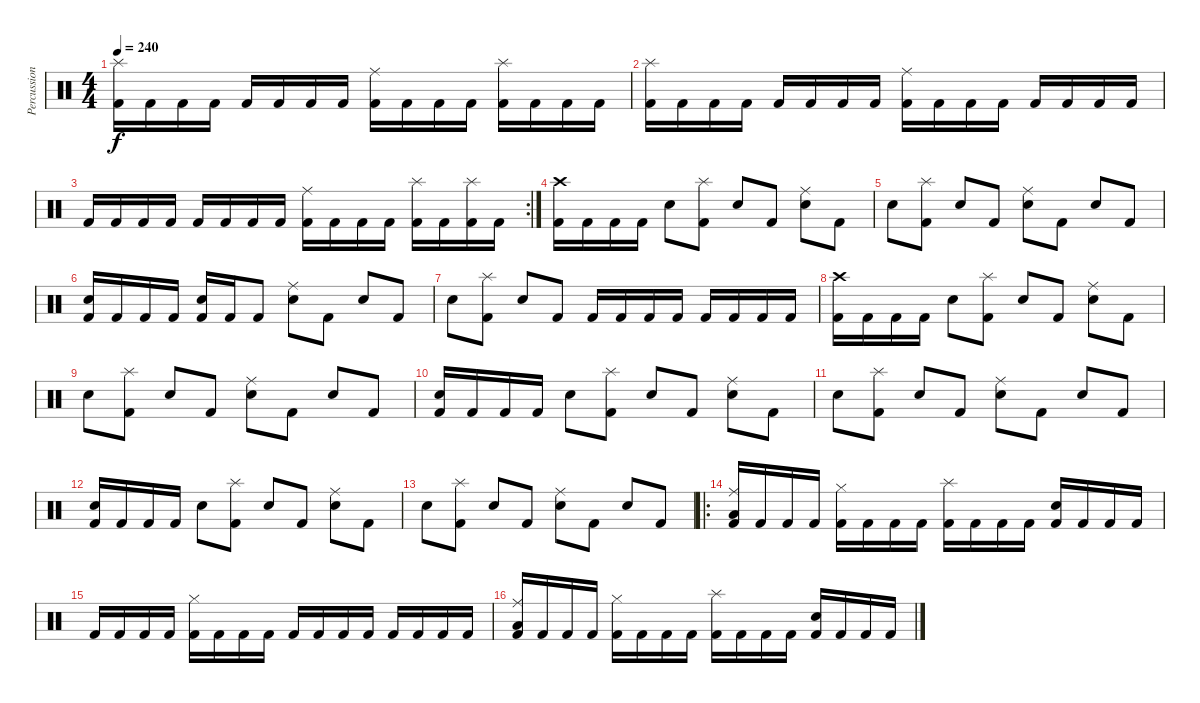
\track ("Percussion" "Percussion") {instrument percussion}
\staff {score}
\articulation defaults
\ts (4 4)
\tempo 240
\clef neutral
\ks c
("Kick (hit) 2" "Splash (hit)").16{dy f} "Kick (hit) 2".16 "Kick (hit) 2".16 "Kick (hit) 2".16 "Kick (hit) 2".16 "Kick (hit) 2".16 "Kick (hit) 2".16 "Kick (hit) 2".16 ("Kick (hit) 2" "Ride (middle)").16 "Kick (hit) 2".16 "Kick (hit) 2".16 "Kick (hit) 2".16 ("Kick (hit) 2" "Splash (hit)").16 "Kick (hit) 2".16 "Kick (hit) 2".16 "Kick (hit) 2".16 |
("Kick (hit) 2" "Splash (hit)").16 "Kick (hit) 2".16 "Kick (hit) 2".16 "Kick (hit) 2".16 "Kick (hit) 2".16 "Kick (hit) 2".16 "Kick (hit) 2".16 "Kick (hit) 2".16 ("Kick (hit) 2" "Ride (middle)").16 "Kick (hit) 2".16 "Kick (hit) 2".16 "Kick (hit) 2".16 "Kick (hit) 2".16 "Kick (hit) 2".16 "Kick (hit) 2".16 "Kick (hit) 2".16 |
\rc 2 "Kick (hit) 2".16 "Kick (hit) 2".16 "Kick (hit) 2".16 "Kick (hit) 2".16 "Kick (hit) 2".16 "Kick (hit) 2".16 "Kick (hit) 2".16 "Kick (hit) 2".16
("Kick (hit) 2" "Ride (middle)").16 "Kick (hit) 2".16 "Kick (hit) 2".16 "Kick (hit) 2".16 ("Kick (hit) 2" "Splash (hit)").16 "Kick (hit) 2".16 ("Kick (hit) 2" "Splash (hit)").16 "Kick (hit) 2".16 |
("Kick (hit) 2" "Crash high (hit)").16 "Kick (hit) 2".16 "Kick (hit) 2".16 "Kick (hit) 2".16 "Electric Snare (hit)".8 ("Kick (hit) 2" "Splash (hit)").8 "Electric Snare (hit)".8 "Kick (hit) 2".8 ("Electric Snare (hit)" "Ride (middle)").8 "Kick (hit) 2".8 |
"Electric Snare (hit)".8 ("Kick (hit) 2" "Splash (hit)").8 "Electric Snare (hit)".8 "Kick (hit) 2".8 ("Electric Snare (hit)" "Ride (middle)").8 "Kick (hit) 2".8 "Electric Snare (hit)".8 "Kick (hit) 2".8 |
("Kick (hit) 2" "Electric Snare (hit)").16 "Kick (hit) 2".16 "Kick (hit) 2".16 "Kick (hit) 2".16 ("Kick (hit) 2" "Electric Snare (hit)").16 "Kick (hit) 2".16 "Kick (hit) 2".8 ("Electric Snare (hit)" "Ride (middle)").8 "Kick (hit) 2".8 "Electric Snare (hit)".8 "Kick (hit) 2".8 |
"Electric Snare (hit)".8 ("Kick (hit) 2" "Splash (hit)").8 "Electric Snare (hit)".8 "Kick (hit) 2".8 "Kick (hit) 2".16 "Kick (hit) 2".16 "Kick (hit) 2".16 "Kick (hit) 2".16 "Kick (hit) 2".16 "Kick (hit) 2".16 "Kick (hit) 2".16 "Kick (hit) 2".16 |
("Kick (hit) 2" "Crash high (hit)").16 "Kick (hit) 2".16 "Kick (hit) 2".16 "Kick (hit) 2".16 "Electric Snare (hit)".8 ("Kick (hit) 2" "Splash (hit)").8 "Electric Snare (hit)".8 "Kick (hit) 2".8 ("Electric Snare (hit)" "Ride (middle)").8 "Kick (hit) 2".8 |
"Electric Snare (hit)".8 ("Kick (hit) 2" "Splash (hit)").8 "Electric Snare (hit)".8 "Kick (hit) 2".8 ("Electric Snare (hit)" "Ride (middle)").8 "Kick (hit) 2".8 "Electric Snare (hit)".8 "Kick (hit) 2".8 |
("Kick (hit) 2" "Electric Snare (hit)").16 "Kick (hit) 2".16 "Kick (hit) 2".16 "Kick (hit) 2".16 "Electric Snare (hit)".8 ("Kick (hit) 2" "Splash (hit)").8 "Electric Snare (hit)".8 "Kick (hit) 2".8 ("Electric Snare (hit)" "Ride (middle)").8 "Kick (hit) 2".8 |
"Electric Snare (hit)".8 ("Kick (hit) 2" "Splash (hit)").8 "Electric Snare (hit)".8 "Kick (hit) 2".8 ("Electric Snare (hit)" "Ride (middle)").8 "Kick (hit) 2".8 "Electric Snare (hit)".8 "Kick (hit) 2".8 |
("Kick (hit) 2" "Electric Snare (hit)").16 "Kick (hit) 2".16 "Kick (hit) 2".16 "Kick (hit) 2".16 "Electric Snare (hit)".8 ("Kick (hit) 2" "Splash (hit)").8 "Electric Snare (hit)".8 "Kick (hit) 2".8 ("Electric Snare (hit)" "Ride (middle)").8 "Kick (hit) 2".8 |
"Electric Snare (hit)".8 ("Kick (hit) 2" "Splash (hit)").8 "Electric Snare (hit)".8 "Kick (hit) 2".8 ("Electric Snare (hit)" "Ride (middle)").8 "Kick (hit) 2".8 "Electric Snare (hit)".8 "Kick (hit) 2".8 |
\ro
("Kick (hit) 2" "Low Floor Tom (hit)" "Ride (middle)").16 "Kick (hit) 2".16 "Kick (hit) 2".16 "Kick (hit) 2".16 ("Kick (hit) 2" "Hi-Hat (closed)").16 "Kick (hit) 2".16 "Kick (hit) 2".16 "Kick (hit) 2".16 ("Kick (hit) 2" "Splash (hit)").16 "Kick (hit) 2".16 "Kick (hit) 2".16 "Kick (hit) 2".16 ("Kick (hit) 2" "Electric Snare (hit)").16 "Kick (hit) 2".16 "Kick (hit) 2".16 "Kick (hit) 2".16 |
"Kick (hit) 2".16 "Kick (hit) 2".16 "Kick (hit) 2".16 "Kick (hit) 2".16 ("Kick (hit) 2" "Hi-Hat (closed)").16 "Kick (hit) 2".16 "Kick (hit) 2".16 "Kick (hit) 2".16 "Kick (hit) 2".16 "Kick (hit) 2".16 "Kick (hit) 2".16 "Kick (hit) 2".16 "Kick (hit) 2".16 "Kick (hit) 2".16 "Kick (hit) 2".16 "Kick (hit) 2".16 |
("Kick (hit) 2" "Low Floor Tom (hit)" "Ride (middle)").16 "Kick (hit) 2".16 "Kick (hit) 2".16 "Kick (hit) 2".16 ("Kick (hit) 2" "Hi-Hat (closed)").16 "Kick (hit) 2".16 "Kick (hit) 2".16 "Kick (hit) 2".16 ("Kick (hit) 2" "Splash (hit)").16 "Kick (hit) 2".16 "Kick (hit) 2".16 "Kick (hit) 2".16 ("Kick (hit) 2" "Electric Snare (hit)").16 "Kick (hit) 2".16 "Kick (hit) 2".16 "Kick (hit) 2".16
